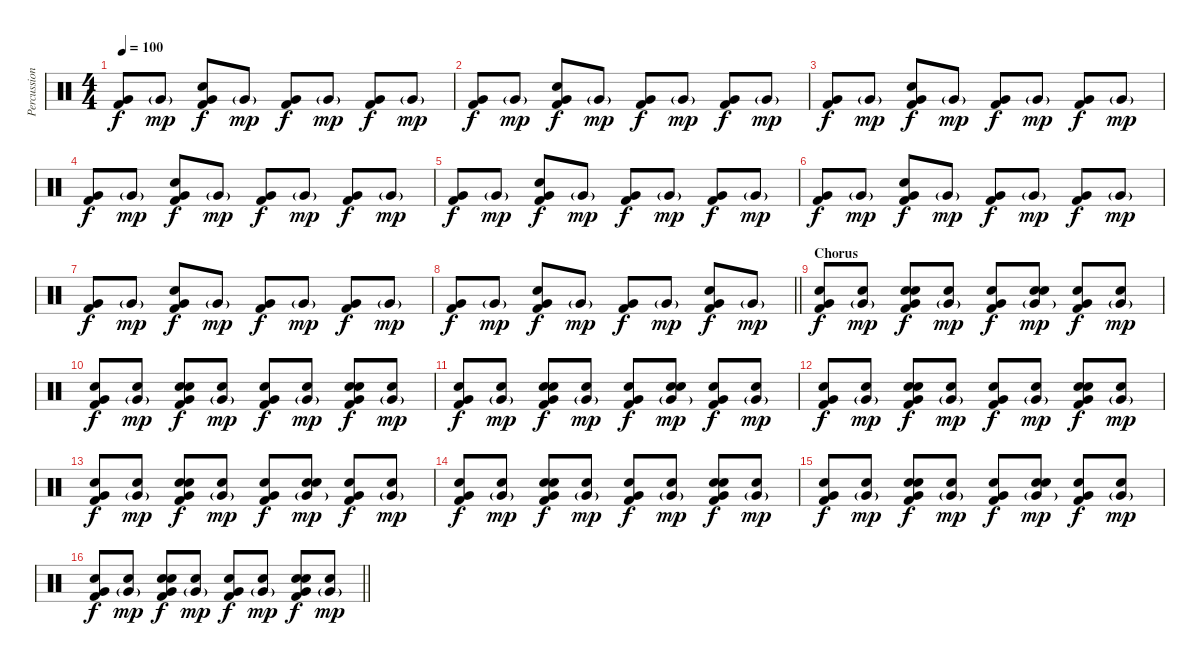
\track ("Percussion" "Percussion") {instrument percussion}
\staff {score}
\articulation defaults
\ts (4 4)
\tempo 100
\clef neutral
\ks c
("Very Low Tom (hit)" "Kick (hit) 2").8{dy f} "Very Low Tom (hit)"{g}.8{dy mp} ("Snare (hit) 2" "Very Low Tom (hit)" "Kick (hit) 2").8{dy f} "Very Low Tom (hit)"{g}.8{dy mp} ("Very Low Tom (hit)" "Kick (hit) 2").8{dy f} "Very Low Tom (hit)"{g}.8{dy mp} ("Very Low Tom (hit)" "Kick (hit) 2").8{dy f} "Very Low Tom (hit)"{g}.8{dy mp} |
("Very Low Tom (hit)" "Kick (hit) 2").8{dy f} "Very Low Tom (hit)"{g}.8{dy mp} ("Snare (hit) 2" "Very Low Tom (hit)" "Kick (hit) 2").8{dy f} "Very Low Tom (hit)"{g}.8{dy mp} ("Very Low Tom (hit)" "Kick (hit) 2").8{dy f} "Very Low Tom (hit)"{g}.8{dy mp} ("Very Low Tom (hit)" "Kick (hit) 2").8{dy f} "Very Low Tom (hit)"{g}.8{dy mp} |
("Very Low Tom (hit)" "Kick (hit) 2").8{dy f} "Very Low Tom (hit)"{g}.8{dy mp} ("Snare (hit) 2" "Very Low Tom (hit)" "Kick (hit) 2").8{dy f} "Very Low Tom (hit)"{g}.8{dy mp} ("Very Low Tom (hit)" "Kick (hit) 2").8{dy f} "Very Low Tom (hit)"{g}.8{dy mp} ("Very Low Tom (hit)" "Kick (hit) 2").8{dy f} "Very Low Tom (hit)"{g}.8{dy mp} |
("Very Low Tom (hit)" "Kick (hit) 2").8{dy f} "Very Low Tom (hit)"{g}.8{dy mp} ("Snare (hit) 2" "Very Low Tom (hit)" "Kick (hit) 2").8{dy f} "Very Low Tom (hit)"{g}.8{dy mp} ("Very Low Tom (hit)" "Kick (hit) 2").8{dy f} "Very Low Tom (hit)"{g}.8{dy mp} ("Very Low Tom (hit)" "Kick (hit) 2").8{dy f} "Very Low Tom (hit)"{g}.8{dy mp} |
("Very Low Tom (hit)" "Kick (hit) 2").8{dy f} "Very Low Tom (hit)"{g}.8{dy mp} ("Snare (hit) 2" "Very Low Tom (hit)" "Kick (hit) 2").8{dy f} "Very Low Tom (hit)"{g}.8{dy mp} ("Very Low Tom (hit)" "Kick (hit) 2").8{dy f} "Very Low Tom (hit)"{g}.8{dy mp} ("Very Low Tom (hit)" "Kick (hit) 2").8{dy f} "Very Low Tom (hit)"{g}.8{dy mp} |
("Very Low Tom (hit)" "Kick (hit) 2").8{dy f} "Very Low Tom (hit)"{g}.8{dy mp} ("Snare (hit) 2" "Very Low Tom (hit)" "Kick (hit) 2").8{dy f} "Very Low Tom (hit)"{g}.8{dy mp} ("Very Low Tom (hit)" "Kick (hit) 2").8{dy f} "Very Low Tom (hit)"{g}.8{dy mp} ("Very Low Tom (hit)" "Kick (hit) 2").8{dy f} "Very Low Tom (hit)"{g}.8{dy mp} |
("Very Low Tom (hit)" "Kick (hit) 2").8{dy f} "Very Low Tom (hit)"{g}.8{dy mp} ("Snare (hit) 2" "Very Low Tom (hit)" "Kick (hit) 2").8{dy f} "Very Low Tom (hit)"{g}.8{dy mp} ("Very Low Tom (hit)" "Kick (hit) 2").8{dy f} "Very Low Tom (hit)"{g}.8{dy mp} ("Very Low Tom (hit)" "Kick (hit) 2").8{dy f} "Very Low Tom (hit)"{g}.8{dy mp} |
\barLineRight lightlight
("Very Low Tom (hit)" "Kick (hit) 2").8{dy f} "Very Low Tom (hit)"{g}.8{dy mp} ("Snare (hit) 2" "Very Low Tom (hit)" "Kick (hit) 2").8{dy f} "Very Low Tom (hit)"{g}.8{dy mp} ("Very Low Tom (hit)" "Kick (hit) 2").8{dy f} "Very Low Tom (hit)"{g}.8{dy mp} ("Snare (hit) 2" "Very Low Tom (hit)" "Kick (hit) 2").8{dy f} "Very Low Tom (hit)"{g}.8{dy mp} |
\section ("" "Chorus")
("Hand Clap (hit)" "Very Low Tom (hit)" "Kick (hit) 2").8{dy f} ("Hand Clap (hit)" "Very Low Tom (hit)"{g}).8{dy mp} ("Hand Clap (hit)" "Snare (hit) 2" "Very Low Tom (hit)" "Kick (hit) 2").8{dy f} ("Hand Clap (hit)" "Very Low Tom (hit)"{g}).8{dy mp} ("Hand Clap (hit)" "Very Low Tom (hit)" "Kick (hit) 2").8{dy f} ("Hand Clap (hit)" "Snare (hit) 2" "Very Low Tom (hit)"{g}).8{dy mp} ("Hand Clap (hit)" "Very Low Tom (hit)" "Kick (hit) 2").8{dy f} ("Hand Clap (hit)" "Very Low Tom (hit)"{g}).8{dy mp} |
("Hand Clap (hit)" "Very Low Tom (hit)" "Kick (hit) 2").8{dy f} ("Hand Clap (hit)" "Very Low Tom (hit)"{g}).8{dy mp} ("Hand Clap (hit)" "Snare (hit) 2" "Very Low Tom (hit)" "Kick (hit) 2").8{dy f} ("Hand Clap (hit)" "Very Low Tom (hit)"{g}).8{dy mp} ("Hand Clap (hit)" "Very Low Tom (hit)" "Kick (hit) 2").8{dy f} ("Hand Clap (hit)" "Very Low Tom (hit)"{g}).8{dy mp} ("Hand Clap (hit)" "Snare (hit) 2" "Very Low Tom (hit)" "Kick (hit) 2").8{dy f} ("Hand Clap (hit)" "Very Low Tom (hit)"{g}).8{dy mp} |
("Hand Clap (hit)" "Very Low Tom (hit)" "Kick (hit) 2").8{dy f} ("Hand Clap (hit)" "Very Low Tom (hit)"{g}).8{dy mp} ("Hand Clap (hit)" "Snare (hit) 2" "Very Low Tom (hit)" "Kick (hit) 2").8{dy f} ("Hand Clap (hit)" "Very Low Tom (hit)"{g}).8{dy mp} ("Hand Clap (hit)" "Very Low Tom (hit)" "Kick (hit) 2").8{dy f} ("Hand Clap (hit)" "Snare (hit) 2" "Very Low Tom (hit)"{g}).8{dy mp} ("Hand Clap (hit)" "Very Low Tom (hit)" "Kick (hit) 2").8{dy f} ("Hand Clap (hit)" "Very Low Tom (hit)"{g}).8{dy mp} |
("Hand Clap (hit)" "Very Low Tom (hit)" "Kick (hit) 2").8{dy f} ("Hand Clap (hit)" "Very Low Tom (hit)"{g}).8{dy mp} ("Hand Clap (hit)" "Snare (hit) 2" "Very Low Tom (hit)" "Kick (hit) 2").8{dy f} ("Hand Clap (hit)" "Very Low Tom (hit)"{g}).8{dy mp} ("Hand Clap (hit)" "Very Low Tom (hit)" "Kick (hit) 2").8{dy f} ("Hand Clap (hit)" "Very Low Tom (hit)"{g}).8{dy mp} ("Hand Clap (hit)" "Snare (hit) 2" "Very Low Tom (hit)" "Kick (hit) 2").8{dy f} ("Hand Clap (hit)" "Very Low Tom (hit)"{g}).8{dy mp} |
("Hand Clap (hit)" "Very Low Tom (hit)" "Kick (hit) 2").8{dy f} ("Hand Clap (hit)" "Very Low Tom (hit)"{g}).8{dy mp} ("Hand Clap (hit)" "Snare (hit) 2" "Very Low Tom (hit)" "Kick (hit) 2").8{dy f} ("Hand Clap (hit)" "Very Low Tom (hit)"{g}).8{dy mp} ("Hand Clap (hit)" "Very Low Tom (hit)" "Kick (hit) 2").8{dy f} ("Hand Clap (hit)" "Snare (hit) 2" "Very Low Tom (hit)"{g}).8{dy mp} ("Hand Clap (hit)" "Very Low Tom (hit)" "Kick (hit) 2").8{dy f} ("Hand Clap (hit)" "Very Low Tom (hit)"{g}).8{dy mp} |
("Hand Clap (hit)" "Very Low Tom (hit)" "Kick (hit) 2").8{dy f} ("Hand Clap (hit)" "Very Low Tom (hit)"{g}).8{dy mp} ("Hand Clap (hit)" "Snare (hit) 2" "Very Low Tom (hit)" "Kick (hit) 2").8{dy f} ("Hand Clap (hit)" "Very Low Tom (hit)"{g}).8{dy mp} ("Hand Clap (hit)" "Very Low Tom (hit)" "Kick (hit) 2").8{dy f} ("Hand Clap (hit)" "Very Low Tom (hit)"{g}).8{dy mp} ("Hand Clap (hit)" "Snare (hit) 2" "Very Low Tom (hit)" "Kick (hit) 2").8{dy f} ("Hand Clap (hit)" "Very Low Tom (hit)"{g}).8{dy mp} |
("Hand Clap (hit)" "Very Low Tom (hit)" "Kick (hit) 2").8{dy f} ("Hand Clap (hit)" "Very Low Tom (hit)"{g}).8{dy mp} ("Hand Clap (hit)" "Snare (hit) 2" "Very Low Tom (hit)" "Kick (hit) 2").8{dy f} ("Hand Clap (hit)" "Very Low Tom (hit)"{g}).8{dy mp} ("Hand Clap (hit)" "Very Low Tom (hit)" "Kick (hit) 2").8{dy f} ("Hand Clap (hit)" "Snare (hit) 2" "Very Low Tom (hit)"{g}).8{dy mp} ("Hand Clap (hit)" "Very Low Tom (hit)" "Kick (hit) 2").8{dy f} ("Hand Clap (hit)" "Very Low Tom (hit)"{g}).8{dy mp} |
\barLineRight lightlight
("Hand Clap (hit)" "Very Low Tom (hit)" "Kick (hit) 2").8{dy f} ("Hand Clap (hit)" "Very Low Tom (hit)"{g}).8{dy mp} ("Hand Clap (hit)" "Snare (hit) 2" "Very Low Tom (hit)" "Kick (hit) 2").8{dy f} ("Hand Clap (hit)" "Very Low Tom (hit)"{g}).8{dy mp} ("Hand Clap (hit)" "Very Low Tom (hit)" "Kick (hit) 2").8{dy f} ("Hand Clap (hit)" "Very Low Tom (hit)"{g}).8{dy mp} ("Hand Clap (hit)" "Snare (hit) 2" "Very Low Tom (hit)" "Kick (hit) 2").8{dy f} ("Hand Clap (hit)" "Very Low Tom (hit)"{g}).8{dy mp}
